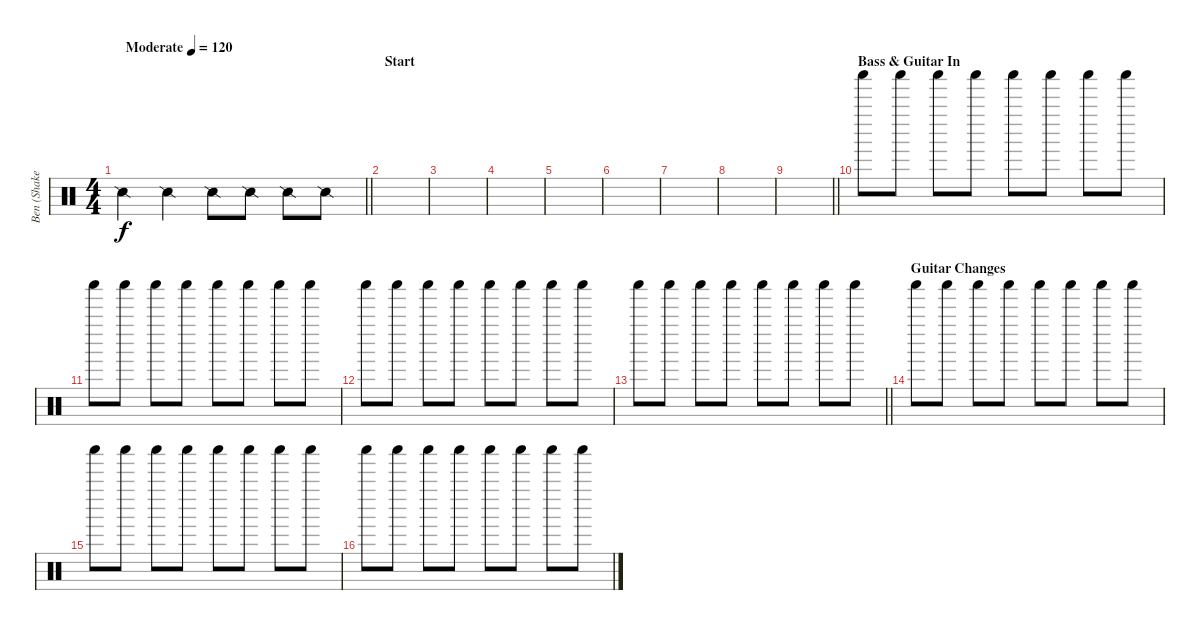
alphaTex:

\track ("Ben (Shaker LOL)" "Ben (Shake") {instrument percussion}
\staff {score}
\articulation defaults
\ts (4 4)
\tempo (120 "Moderate")
\clef neutral
\barLineRight lightlight
\ks c "Snare (side stick) 2".4{dy f} "Snare (side stick) 2".4 "Snare (side stick) 2".8 "Snare (side stick) 2".8 "Snare (side stick) 2".8 "Snare (side stick) 2".8
|
\section ("" "Start")
|
|
|
|
|
|
|
\barLineRight lightlight
|
\section ("" "Bass & Guitar In")
"Shaker (hit)".8 "Shaker (hit)".8 "Shaker (hit)".8 "Shaker (hit)".8 "Shaker (hit)".8 "Shaker (hit)".8 "Shaker (hit)".8 "Shaker (hit)".8 |
"Shaker (hit)".8 "Shaker (hit)".8 "Shaker (hit)".8 "Shaker (hit)".8 "Shaker (hit)".8 "Shaker (hit)".8 "Shaker (hit)".8 "Shaker (hit)".8 |
"Shaker (hit)".8 "Shaker (hit)".8 "Shaker (hit)".8 "Shaker (hit)".8 "Shaker (hit)".8 "Shaker (hit)".8 "Shaker (hit)".8 "Shaker (hit)".8 |
\barLineRight lightlight "Shaker (hit)".8 "Shaker (hit)".8 "Shaker (hit)".8 "Shaker (hit)".8 "Shaker (hit)".8 "Shaker (hit)".8 "Shaker (hit)".8 "Shaker (hit)".8
|
\section ("" "Guitar Changes")
"Shaker (hit)".8 "Shaker (hit)".8 "Shaker (hit)".8 "Shaker (hit)".8 "Shaker (hit)".8 "Shaker (hit)".8 "Shaker (hit)".8 "Shaker (hit)".8 |
"Shaker (hit)".8 "Shaker (hit)".8 "Shaker (hit)".8 "Shaker (hit)".8 "Shaker (hit)".8 "Shaker (hit)".8 "Shaker (hit)".8 "Shaker (hit)".8 |
"Shaker (hit)".8 "Shaker (hit)".8 "Shaker (hit)".8 "Shaker (hit)".8 "Shaker (hit)".8 "Shaker (hit)".8 "Shaker (hit)".8 "Shaker (hit)".8
